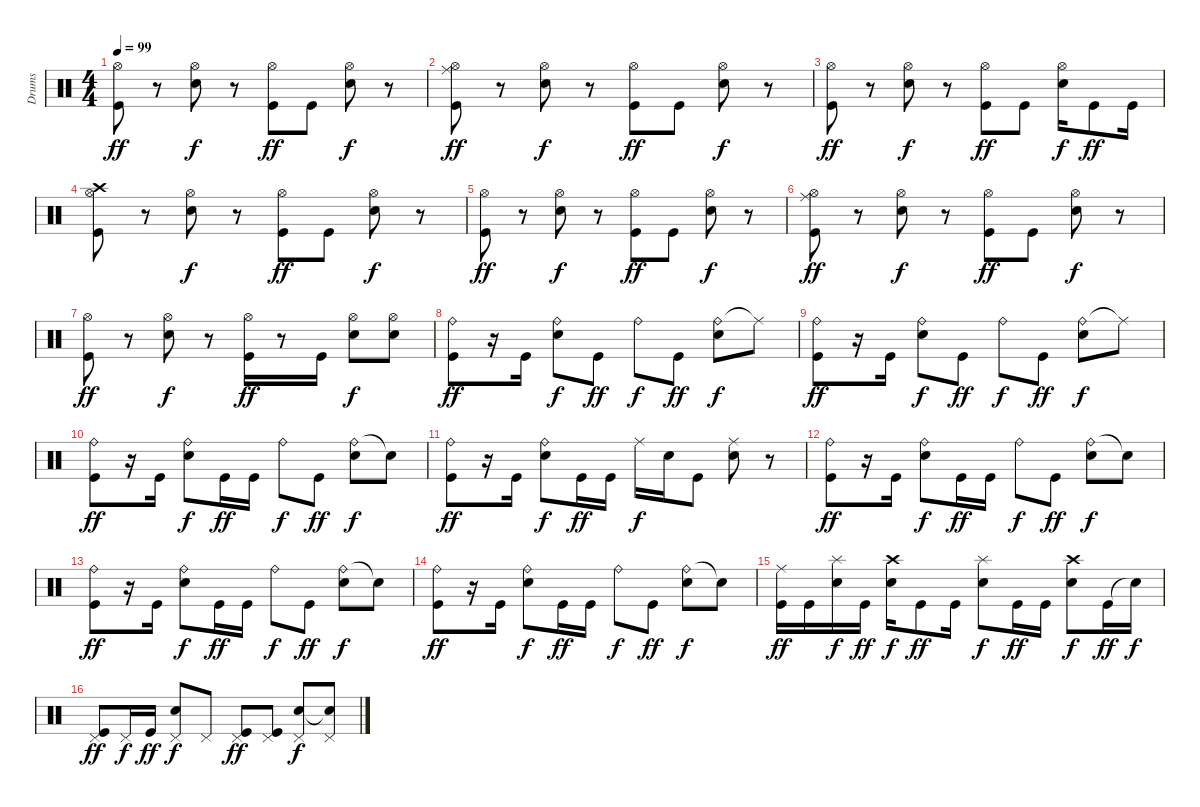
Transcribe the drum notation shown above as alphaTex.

\track ("Drums" "Drums") {instrument percussion}
\staff {score}
\articulation defaults
\ts (4 4)
\tempo 99
\clef neutral
\ks c
("Hi-Hat (open)" "Kick (hit)").8{dy ff} r.8 ("Hi-Hat (open)" "Electric Snare (hit)").8{dy f} r.8 ("Hi-Hat (open)" "Kick (hit)").8{dy ff} "Kick (hit)".8 ("Hi-Hat (open)" "Electric Snare (hit)").8{dy f} r.8 |
("Ride (middle)" "Hi-Hat (open)" "Kick (hit)").8{dy ff} r.8 ("Hi-Hat (open)" "Electric Snare (hit)").8{dy f} r.8 ("Hi-Hat (open)" "Kick (hit)").8{dy ff} "Kick (hit)".8 ("Hi-Hat (open)" "Electric Snare (hit)").8{dy f} r.8 |
("Hi-Hat (open)" "Kick (hit)").8{dy ff} r.8 ("Hi-Hat (open)" "Electric Snare (hit)").8{dy f} r.8 ("Hi-Hat (open)" "Kick (hit)").8{dy ff} "Kick (hit)".8 ("Hi-Hat (open)" "Electric Snare (hit)").16{dy f} "Kick (hit)".8{dy ff} "Kick (hit)".16 |
("Crash high (hit)" "Hi-Hat (open)" "Kick (hit)").8 r.8 ("Hi-Hat (open)" "Electric Snare (hit)").8{dy f} r.8 ("Hi-Hat (open)" "Kick (hit)").8{dy ff} "Kick (hit)".8 ("Hi-Hat (open)" "Electric Snare (hit)").8{dy f} r.8 |
("Hi-Hat (open)" "Kick (hit)").8{dy ff} r.8 ("Hi-Hat (open)" "Electric Snare (hit)").8{dy f} r.8 ("Hi-Hat (open)" "Kick (hit)").8{dy ff} "Kick (hit)".8 ("Hi-Hat (open)" "Electric Snare (hit)").8{dy f} r.8 |
("Ride (middle)" "Hi-Hat (open)" "Kick (hit)").8{dy ff} r.8 ("Hi-Hat (open)" "Electric Snare (hit)").8{dy f} r.8 ("Hi-Hat (open)" "Kick (hit)").8{dy ff} "Kick (hit)".8 ("Hi-Hat (open)" "Electric Snare (hit)").8{dy f} r.8 |
("Hi-Hat (open)" "Kick (hit)").8{dy ff} r.8 ("Hi-Hat (open)" "Electric Snare (hit)").8{dy f} r.8 ("Hi-Hat (open)" "Kick (hit)").16{dy ff} r.8 "Kick (hit)".16 ("Hi-Hat (open)" "Electric Snare (hit)").8{dy f} ("Hi-Hat (open)" "Electric Snare (hit)").8 |
("Ride (bell)" "Kick (hit)").8{dy ff} r.16 "Kick (hit)".16 ("Ride (bell)" "Electric Snare (hit)").8{dy f} "Kick (hit)".8{dy ff} "Ride (bell)".8{dy f} "Kick (hit)".8{dy ff} ("Ride (bell)" "Electric Snare (hit)").8{dy f} "Ride (middle)"{t}.8 |
("Ride (bell)" "Kick (hit)").8{dy ff} r.16 "Kick (hit)".16 ("Ride (bell)" "Electric Snare (hit)").8{dy f} "Kick (hit)".8{dy ff} "Ride (bell)".8{dy f} "Kick (hit)".8{dy ff} ("Ride (bell)" "Electric Snare (hit)").8{dy f} "Ride (middle)"{t}.8 |
("Ride (bell)" "Kick (hit)").8{dy ff} r.16 "Kick (hit)".16 ("Ride (bell)" "Electric Snare (hit)").8{dy f} "Kick (hit)".16{dy ff} "Kick (hit)".16 "Ride (bell)".8{dy f} "Kick (hit)".8{dy ff} ("Ride (bell)" "Electric Snare (hit)").8{dy f} "Snare (hit)"{t}.8 |
("Ride (bell)" "Kick (hit)").8{dy ff} r.16 "Kick (hit)".16 ("Ride (bell)" "Electric Snare (hit)").8{dy f} "Kick (hit)".16{dy ff} "Kick (hit)".16 "Ride (middle)".16{dy f} "Electric Snare (hit)".16 "Kick (hit)".8 ("Ride (middle)" "Electric Snare (hit)").8 r.8 |
("Ride (bell)" "Kick (hit)").8{dy ff} r.16 "Kick (hit)".16 ("Ride (bell)" "Electric Snare (hit)").8{dy f} "Kick (hit)".16{dy ff} "Kick (hit)".16 "Ride (bell)".8{dy f} "Kick (hit)".8{dy ff} ("Ride (bell)" "Electric Snare (hit)").8{dy f} "Snare (hit)"{t}.8 |
("Ride (bell)" "Kick (hit)").8{dy ff} r.16 "Kick (hit)".16 ("Ride (bell)" "Electric Snare (hit)").8{dy f} "Kick (hit)".16{dy ff} "Kick (hit)".16 "Ride (bell)".8{dy f} "Kick (hit)".8{dy ff} ("Ride (bell)" "Electric Snare (hit)").8{dy f} "Snare (hit)"{t}.8 |
("Ride (bell)" "Kick (hit)").8{dy ff} r.16 "Kick (hit)".16 ("Ride (bell)" "Electric Snare (hit)").8{dy f} "Kick (hit)".16{dy ff} "Kick (hit)".16 "Ride (bell)".8{dy f} "Kick (hit)".8{dy ff} ("Ride (bell)" "Electric Snare (hit)").8{dy f} "Snare (hit)"{t}.8 |
("Ride (middle)" "Kick (hit)").16{dy ff} "Kick (hit)".16 ("Splash (hit)" "Electric Snare (hit)").16{dy f} "Kick (hit)".16{dy ff} ("Crash high (hit)" "Electric Snare (hit)").16{dy f} "Kick (hit)".8{dy ff} "Kick (hit)".16 ("Splash (hit)" "Electric Snare (hit)").8{dy f} "Kick (hit)".16{dy ff} "Kick (hit)".16 ("Crash high (hit)" "Electric Snare (hit)").8{dy f} "Kick (hit)".16{dy ff} "Snare (hit)"{t}.16{dy f} |
("Pedal Hi-Hat (hit)" "Kick (hit)").8{dy ff} "Pedal Hi-Hat (hit)".16{dy f} "Kick (hit)".16{dy ff} ("Pedal Hi-Hat (hit)" "Electric Snare (hit)").8{dy f} "Pedal Hi-Hat (hit)".8 ("Pedal Hi-Hat (hit)" "Kick (hit)").8{dy ff} ("Pedal Hi-Hat (hit)" "Kick (hit)").8 ("Pedal Hi-Hat (hit)" "Electric Snare (hit)").8{dy f} ("Pedal Hi-Hat (hit)" "Snare (hit)"{t}).8
